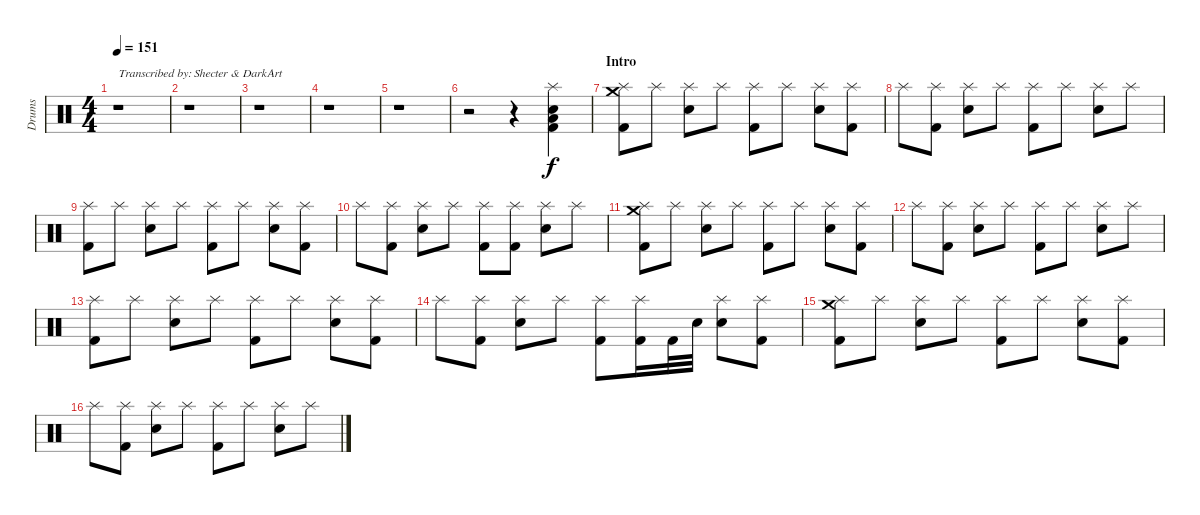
\track ("Drums" "Drums") {instrument percussion}
\staff {score}
\articulation defaults
\ts (4 4)
\tempo 151
\clef neutral
\ks c
r.1{txt "Transcribed by: Shecter & DarkArt" dy f} |
r.1 |
r.1 |
r.1 |
r.1 |
r.2 r.4 ("Splash (hit)" "Low Tom (hit)" "Snare (hit) 2" "Kick (hit) 2").4 |
\section ("" "Intro")
("Kick (hit) 2" "Splash (hit)" "Crash medium (hit)").8 "Splash (hit)".8 ("Splash (hit)" "Electric Snare (hit)").8 "Splash (hit)".8 ("Kick (hit) 2" "Splash (hit)").8 "Splash (hit)".8 ("Splash (hit)" "Electric Snare (hit)").8 ("Kick (hit) 2" "Splash (hit)").8 |
"Splash (hit)".8 ("Kick (hit) 2" "Splash (hit)").8 ("Splash (hit)" "Electric Snare (hit)").8 "Splash (hit)".8 ("Kick (hit) 2" "Splash (hit)").8 "Splash (hit)".8 ("Splash (hit)" "Electric Snare (hit)").8 "Splash (hit)".8 |
("Kick (hit) 2" "Splash (hit)").8 "Splash (hit)".8 ("Splash (hit)" "Electric Snare (hit)").8 "Splash (hit)".8 ("Kick (hit) 2" "Splash (hit)").8 "Splash (hit)".8 ("Splash (hit)" "Electric Snare (hit)").8 ("Kick (hit) 2" "Splash (hit)").8 |
"Splash (hit)".8 ("Kick (hit) 2" "Splash (hit)").8 ("Splash (hit)" "Electric Snare (hit)").8 "Splash (hit)".8 ("Kick (hit) 2" "Splash (hit)").8 ("Kick (hit) 2" "Splash (hit)").8 ("Splash (hit)" "Electric Snare (hit)").8 "Splash (hit)".8 |
("Kick (hit) 2" "Splash (hit)" "Crash medium (hit)").8 "Splash (hit)".8 ("Splash (hit)" "Electric Snare (hit)").8 "Splash (hit)".8 ("Kick (hit) 2" "Splash (hit)").8 "Splash (hit)".8 ("Splash (hit)" "Electric Snare (hit)").8 ("Kick (hit) 2" "Splash (hit)").8 |
"Splash (hit)".8 ("Kick (hit) 2" "Splash (hit)").8 ("Splash (hit)" "Electric Snare (hit)").8 "Splash (hit)".8 ("Kick (hit) 2" "Splash (hit)").8 "Splash (hit)".8 ("Splash (hit)" "Electric Snare (hit)").8 "Splash (hit)".8 |
("Kick (hit) 2" "Splash (hit)").8 "Splash (hit)".8 ("Splash (hit)" "Electric Snare (hit)").8 "Splash (hit)".8 ("Kick (hit) 2" "Splash (hit)").8 "Splash (hit)".8 ("Splash (hit)" "Electric Snare (hit)").8 ("Kick (hit) 2" "Splash (hit)").8 |
"Splash (hit)".8 ("Kick (hit) 2" "Splash (hit)").8 ("Splash (hit)" "Electric Snare (hit)").8 "Splash (hit)".8 ("Kick (hit) 2" "Splash (hit)").8 ("Kick (hit) 2" "Splash (hit)").16 "Kick (hit) 2".32 "Electric Snare (hit)".32 ("Splash (hit)" "Electric Snare (hit)").8 ("Splash (hit)" "Kick (hit) 2").8 |
("Kick (hit) 2" "Splash (hit)" "Crash medium (hit)").8 "Splash (hit)".8 ("Splash (hit)" "Electric Snare (hit)").8 "Splash (hit)".8 ("Kick (hit) 2" "Splash (hit)").8 "Splash (hit)".8 ("Splash (hit)" "Electric Snare (hit)").8 ("Kick (hit) 2" "Splash (hit)").8 |
"Splash (hit)".8 ("Kick (hit) 2" "Splash (hit)").8 ("Splash (hit)" "Electric Snare (hit)").8 "Splash (hit)".8 ("Kick (hit) 2" "Splash (hit)").8 "Splash (hit)".8 ("Splash (hit)" "Electric Snare (hit)").8 "Splash (hit)".8
